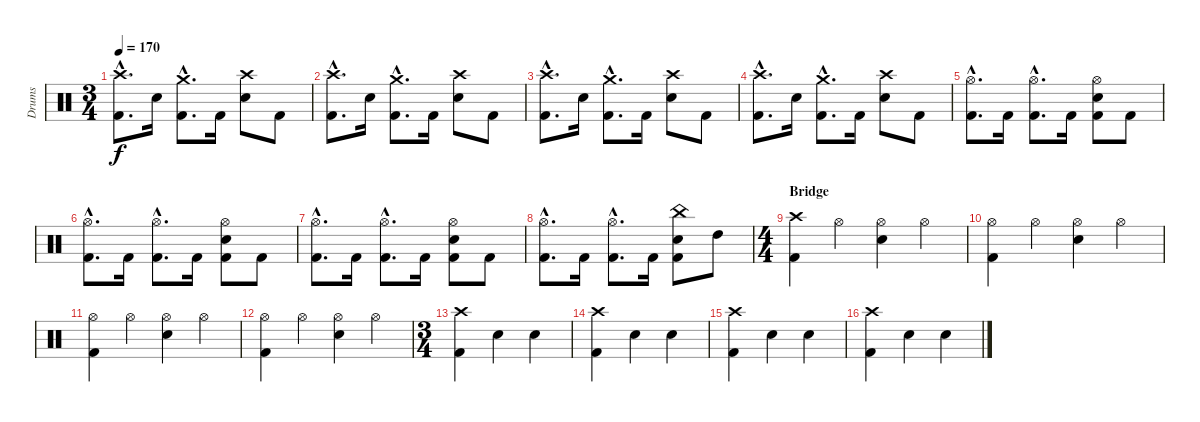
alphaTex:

\track ("Drums" "Drums") {instrument percussion}
\staff {score}
\articulation defaults
\ts (3 4)
\tempo 170
\clef neutral
\ks c
("Crash high (hit)"{hac} "Kick (hit) 2"{hac}).8{d dy f} "Electric Snare (hit)".16 ("Crash medium (hit)"{hac} "Kick (hit) 2"{hac}).8{d} "Kick (hit) 2".16 ("Crash high (hit)" "Electric Snare (hit)").8 "Kick (hit) 2".8 |
("Crash high (hit)"{hac} "Kick (hit) 2"{hac}).8{d} "Electric Snare (hit)".16 ("Crash medium (hit)"{hac} "Kick (hit) 2"{hac}).8{d} "Kick (hit) 2".16 ("Crash high (hit)" "Electric Snare (hit)").8 "Kick (hit) 2".8 |
("Crash high (hit)"{hac} "Kick (hit) 2"{hac}).8{d} "Electric Snare (hit)".16 ("Crash medium (hit)"{hac} "Kick (hit) 2"{hac}).8{d} "Kick (hit) 2".16 ("Crash high (hit)" "Electric Snare (hit)").8 "Kick (hit) 2".8 |
("Crash high (hit)"{hac} "Kick (hit) 2"{hac}).8{d} "Electric Snare (hit)".16 ("Crash medium (hit)"{hac} "Kick (hit) 2"{hac}).8{d} "Kick (hit) 2".16 ("Crash high (hit)" "Electric Snare (hit)").8 "Kick (hit) 2".8 |
\section ("" "")
("Hi-Hat (open)"{hac} "Kick (hit) 2"{hac}).8{d} "Kick (hit) 2".16 ("Hi-Hat (open)"{hac} "Kick (hit) 2"{hac}).8{d} "Kick (hit) 2".16 ("Hi-Hat (open)" "Electric Snare (hit)" "Kick (hit) 2").8 "Kick (hit) 2".8 |
("Hi-Hat (open)"{hac} "Kick (hit) 2"{hac}).8{d} "Kick (hit) 2".16 ("Hi-Hat (open)"{hac} "Kick (hit) 2"{hac}).8{d} "Kick (hit) 2".16 ("Hi-Hat (open)" "Electric Snare (hit)" "Kick (hit) 2").8 "Kick (hit) 2".8 |
("Hi-Hat (open)"{hac} "Kick (hit) 2"{hac}).8{d} "Kick (hit) 2".16 ("Hi-Hat (open)"{hac} "Kick (hit) 2"{hac}).8{d} "Kick (hit) 2".16 ("Hi-Hat (open)" "Electric Snare (hit)" "Kick (hit) 2").8 "Kick (hit) 2".8 |
("Hi-Hat (open)"{hac} "Kick (hit) 2"{hac}).8{d} "Kick (hit) 2".16 ("Hi-Hat (open)"{hac} "Kick (hit) 2"{hac}).8{d} "Kick (hit) 2".16 ("China (hit)" "Electric Snare (hit)" "Kick (hit) 2").8 "High Tom (hit)".8 |
\ts (4 4)
\section ("" "Bridge")
("Crash high (hit)" "Kick (hit) 2").4 "Hi-Hat (open)".4 ("Hi-Hat (open)" "Electric Snare (hit)").4 "Hi-Hat (open)".4 |
("Hi-Hat (open)" "Kick (hit) 2").4 "Hi-Hat (open)".4 ("Hi-Hat (open)" "Electric Snare (hit)").4 "Hi-Hat (open)".4 |
("Hi-Hat (open)" "Kick (hit) 2").4 "Hi-Hat (open)".4 ("Hi-Hat (open)" "Electric Snare (hit)").4 "Hi-Hat (open)".4 |
("Hi-Hat (open)" "Kick (hit) 2").4 "Hi-Hat (open)".4 ("Hi-Hat (open)" "Electric Snare (hit)").4 "Hi-Hat (open)".4 |
\ts (3 4)
("Crash high (hit)" "Kick (hit) 2").4 "Electric Snare (hit)".4 "Electric Snare (hit)".4 |
("Crash high (hit)" "Kick (hit) 2").4 "Electric Snare (hit)".4 "Electric Snare (hit)".4 |
("Crash high (hit)" "Kick (hit) 2").4 "Electric Snare (hit)".4 "Electric Snare (hit)".4 |
("Crash high (hit)" "Kick (hit) 2").4 "Electric Snare (hit)".4 "Electric Snare (hit)".4
